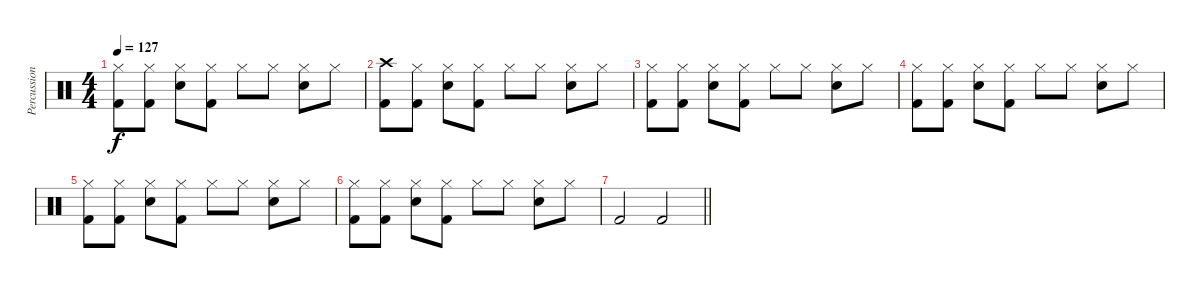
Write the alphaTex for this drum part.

\track ("Percussion" "Percussion") {instrument percussion}
\staff {score}
\articulation defaults
\ts (4 4)
\tempo 127
\clef neutral
\ks c
("Hi-Hat (closed)" "Kick (hit) 2").8{dy f} ("Hi-Hat (closed)" "Kick (hit) 2").8 ("Hi-Hat (closed)" "Snare (hit) 2").8 ("Hi-Hat (closed)" "Kick (hit) 2").8 "Hi-Hat (closed)".8 "Hi-Hat (closed)".8 ("Hi-Hat (closed)" "Snare (hit) 2").8 "Hi-Hat (closed)".8 |
("Crash high (hit)" "Kick (hit) 2").8 ("Hi-Hat (closed)" "Kick (hit) 2").8 ("Hi-Hat (closed)" "Snare (hit) 2").8 ("Hi-Hat (closed)" "Kick (hit) 2").8 "Hi-Hat (closed)".8 "Hi-Hat (closed)".8 ("Hi-Hat (closed)" "Snare (hit) 2").8 "Hi-Hat (closed)".8 |
("Hi-Hat (closed)" "Kick (hit) 2").8 ("Hi-Hat (closed)" "Kick (hit) 2").8 ("Hi-Hat (closed)" "Snare (hit) 2").8 ("Hi-Hat (closed)" "Kick (hit) 2").8 "Hi-Hat (closed)".8 "Hi-Hat (closed)".8 ("Hi-Hat (closed)" "Snare (hit) 2").8 "Hi-Hat (closed)".8 |
("Hi-Hat (closed)" "Kick (hit) 2").8 ("Hi-Hat (closed)" "Kick (hit) 2").8 ("Hi-Hat (closed)" "Snare (hit) 2").8 ("Hi-Hat (closed)" "Kick (hit) 2").8 "Hi-Hat (closed)".8 "Hi-Hat (closed)".8 ("Hi-Hat (closed)" "Snare (hit) 2").8 "Hi-Hat (closed)".8 |
("Hi-Hat (closed)" "Kick (hit) 2").8 ("Hi-Hat (closed)" "Kick (hit) 2").8 ("Hi-Hat (closed)" "Snare (hit) 2").8 ("Hi-Hat (closed)" "Kick (hit) 2").8 "Hi-Hat (closed)".8 "Hi-Hat (closed)".8 ("Hi-Hat (closed)" "Snare (hit) 2").8 "Hi-Hat (closed)".8 |
("Hi-Hat (closed)" "Kick (hit) 2").8 ("Hi-Hat (closed)" "Kick (hit) 2").8 ("Hi-Hat (closed)" "Snare (hit) 2").8 ("Hi-Hat (closed)" "Kick (hit) 2").8 "Hi-Hat (closed)".8 "Hi-Hat (closed)".8 ("Hi-Hat (closed)" "Snare (hit) 2").8 "Hi-Hat (closed)".8 |
\barLineRight lightlight "Kick (hit) 2".2 "Kick (hit) 2".2
